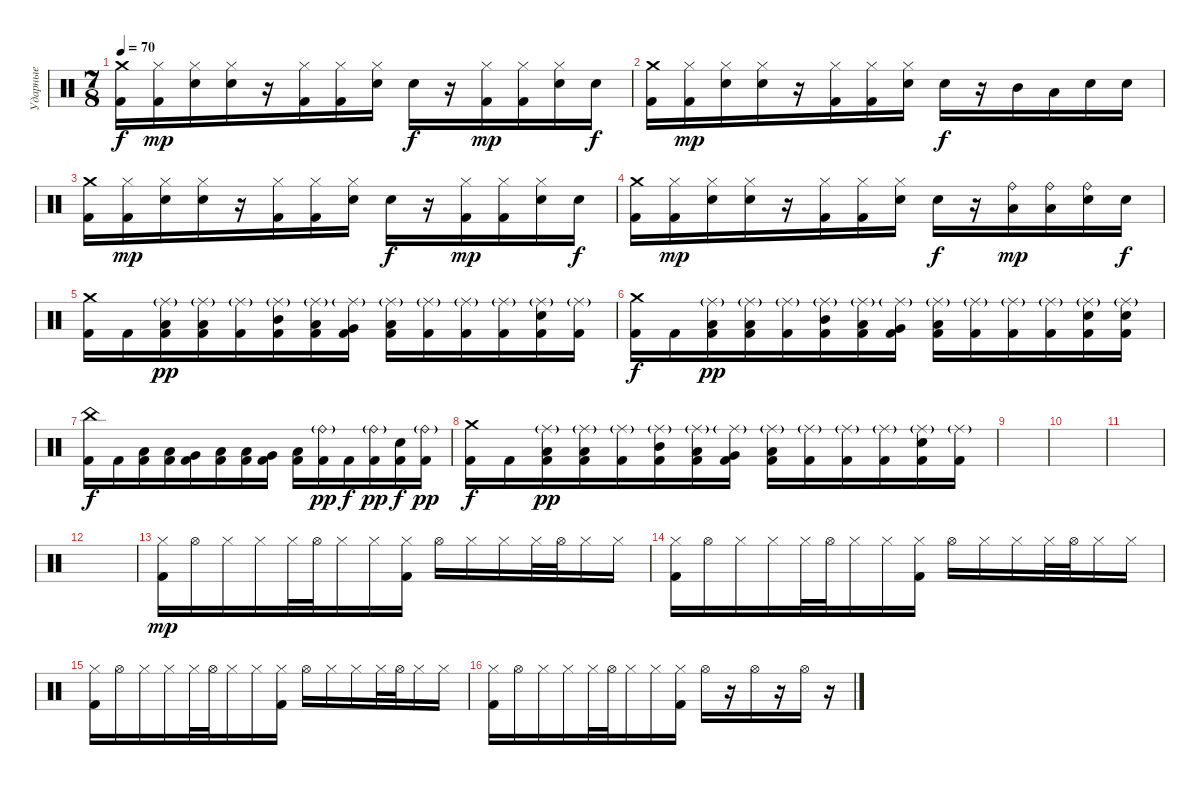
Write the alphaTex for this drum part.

\track ("Ударные" "Ударные") {instrument percussion}
\staff {score}
\articulation defaults
\ts (7 8)
\tempo 70
\clef neutral
\ks c
("Crash medium (hit)" "Kick (hit) 2").16{dy f} ("Hi-Hat (closed)" "Kick (hit) 2").16{dy mp} ("Hi-Hat (closed)" "Snare (hit) 2").16 ("Hi-Hat (closed)" "Snare (hit) 2").16 r.16 ("Hi-Hat (closed)" "Kick (hit) 2").16 ("Hi-Hat (closed)" "Kick (hit) 2").16 ("Hi-Hat (closed)" "Snare (hit) 2").16 "Snare (hit) 2".16{dy f} r.16 ("Hi-Hat (closed)" "Kick (hit) 2").16{dy mp} ("Hi-Hat (closed)" "Kick (hit) 2").16 ("Hi-Hat (closed)" "Snare (hit) 2").16 "Snare (hit) 2".16{dy f} |
("Crash medium (hit)" "Kick (hit) 2").16 ("Hi-Hat (closed)" "Kick (hit) 2").16{dy mp} ("Hi-Hat (closed)" "Snare (hit) 2").16 ("Hi-Hat (closed)" "Snare (hit) 2").16 r.16 ("Hi-Hat (closed)" "Kick (hit) 2").16 ("Hi-Hat (closed)" "Kick (hit) 2").16 ("Hi-Hat (closed)" "Snare (hit) 2").16 "Snare (hit) 2".16{dy f} r.16 "Mid Tom (hit)".16 "Low Tom (hit)".16 "Snare (hit) 2".16 "Snare (hit) 2".16 |
("Crash medium (hit)" "Kick (hit) 2").16 ("Hi-Hat (closed)" "Kick (hit) 2").16{dy mp} ("Hi-Hat (closed)" "Snare (hit) 2").16 ("Hi-Hat (closed)" "Snare (hit) 2").16 r.16 ("Hi-Hat (closed)" "Kick (hit) 2").16 ("Hi-Hat (closed)" "Kick (hit) 2").16 ("Hi-Hat (closed)" "Snare (hit) 2").16 "Snare (hit) 2".16{dy f} r.16 ("Hi-Hat (closed)" "Kick (hit) 2").16{dy mp} ("Hi-Hat (closed)" "Kick (hit) 2").16 ("Hi-Hat (closed)" "Snare (hit) 2").16 "Snare (hit) 2".16{dy f} |
("Crash medium (hit)" "Kick (hit) 2").16 ("Hi-Hat (closed)" "Kick (hit) 2").16{dy mp} ("Hi-Hat (closed)" "Snare (hit) 2").16 ("Hi-Hat (closed)" "Snare (hit) 2").16 r.16 ("Hi-Hat (closed)" "Kick (hit) 2").16 ("Hi-Hat (closed)" "Kick (hit) 2").16 ("Hi-Hat (closed)" "Snare (hit) 2").16 "Snare (hit) 2".16{dy f} r.16 ("Ride (bell)" "Low Floor Tom (hit)").16{dy mp} ("Ride (bell)" "Low Floor Tom (hit)").16 ("Ride (bell)" "Snare (hit) 2").16 "Snare (hit) 2".16{dy f} |
("Crash medium (hit)" "Kick (hit) 2").16 "Kick (hit) 2".16 ("Ride (middle)"{g} "Low Floor Tom (hit)" "Kick (hit) 2").16{dy pp} ("Ride (middle)"{g} "Low Floor Tom (hit)" "Kick (hit) 2").16 ("Ride (middle)"{g} "Kick (hit) 2").16 ("Ride (middle)"{g} "Mid Tom (hit)" "Kick (hit) 2").16 ("Ride (middle)"{g} "Low Tom (hit)" "Kick (hit) 2").16 ("Ride (middle)"{g} "Very Low Tom (hit)" "Kick (hit) 2").16 ("Ride (middle)"{g} "Low Floor Tom (hit)" "Kick (hit) 2").16 ("Ride (middle)"{g} "Kick (hit) 2").16 ("Ride (middle)"{g} "Kick (hit) 2").16 ("Ride (middle)"{g} "Kick (hit) 2").16 ("Ride (middle)"{g} "Snare (hit) 2" "Kick (hit) 2").16 ("Ride (middle)"{g} "Kick (hit) 2").16 |
("Crash medium (hit)" "Kick (hit) 2").16{dy f} "Kick (hit) 2".16 ("Ride (middle)"{g} "Low Floor Tom (hit)" "Kick (hit) 2").16{dy pp} ("Ride (middle)"{g} "Low Floor Tom (hit)" "Kick (hit) 2").16 ("Ride (middle)"{g} "Kick (hit) 2").16 ("Ride (middle)"{g} "Mid Tom (hit)" "Kick (hit) 2").16 ("Ride (middle)"{g} "Low Tom (hit)" "Kick (hit) 2").16 ("Ride (middle)"{g} "Very Low Tom (hit)" "Kick (hit) 2").16 ("Ride (middle)"{g} "Low Floor Tom (hit)" "Kick (hit) 2").16 ("Ride (middle)"{g} "Kick (hit) 2").16 ("Ride (middle)"{g} "Kick (hit) 2").16 ("Ride (middle)"{g} "Kick (hit) 2").16 ("Ride (middle)"{g} "Snare (hit) 2" "Kick (hit) 2").16 ("Ride (middle)"{g} "Snare (hit) 2" "Kick (hit) 2").16 |
("China (hit)" "Kick (hit) 2").16{dy f} "Kick (hit) 2".16 ("Low Floor Tom (hit)" "Kick (hit) 2").16 ("Low Floor Tom (hit)" "Kick (hit) 2").16 ("Very Low Tom (hit)" "Kick (hit) 2").16 ("Low Floor Tom (hit)" "Kick (hit) 2").16 ("Low Tom (hit)" "Kick (hit) 2").16 ("Very Low Tom (hit)" "Kick (hit) 2").16 ("Low Floor Tom (hit)" "Kick (hit) 2").16 ("Ride (bell)"{g} "Kick (hit) 2").16{dy pp} "Kick (hit) 2".16{dy f} ("Ride (bell)"{g} "Kick (hit) 2").16{dy pp} ("Snare (hit) 2" "Kick (hit) 2").16{dy f} ("Ride (bell)"{g} "Kick (hit) 2").16{dy pp} |
("Crash medium (hit)" "Kick (hit) 2").16{dy f} "Kick (hit) 2".16 ("Ride (middle)"{g} "Low Floor Tom (hit)" "Kick (hit) 2").16{dy pp} ("Ride (middle)"{g} "Low Floor Tom (hit)" "Kick (hit) 2").16 ("Ride (middle)"{g} "Kick (hit) 2").16 ("Ride (middle)"{g} "Mid Tom (hit)" "Kick (hit) 2").16 ("Ride (middle)"{g} "Low Tom (hit)" "Kick (hit) 2").16 ("Ride (middle)"{g} "Very Low Tom (hit)" "Kick (hit) 2").16 ("Ride (middle)"{g} "Low Floor Tom (hit)" "Kick (hit) 2").16 ("Ride (middle)"{g} "Kick (hit) 2").16 ("Ride (middle)"{g} "Kick (hit) 2").16 ("Ride (middle)"{g} "Kick (hit) 2").16 ("Ride (middle)"{g} "Snare (hit) 2" "Kick (hit) 2").16 ("Ride (middle)"{g} "Kick (hit) 2").16 |
|
|
|
|
("Hi-Hat (closed)" "Kick (hit) 2").16{dy mp} "Hi-Hat (open)".16 "Hi-Hat (closed)".16 "Hi-Hat (closed)".16 "Hi-Hat (closed)".32 "Hi-Hat (open)".32 "Hi-Hat (closed)".16 "Hi-Hat (closed)".16 ("Hi-Hat (closed)" "Kick (hit) 2").16 "Hi-Hat (open)".16 "Hi-Hat (closed)".16 "Hi-Hat (closed)".16 "Hi-Hat (closed)".32 "Hi-Hat (open)".32 "Hi-Hat (closed)".16 "Hi-Hat (closed)".16 |
("Hi-Hat (closed)" "Kick (hit) 2").16 "Hi-Hat (open)".16 "Hi-Hat (closed)".16 "Hi-Hat (closed)".16 "Hi-Hat (closed)".32 "Hi-Hat (open)".32 "Hi-Hat (closed)".16 "Hi-Hat (closed)".16 ("Hi-Hat (closed)" "Kick (hit) 2").16 "Hi-Hat (open)".16 "Hi-Hat (closed)".16 "Hi-Hat (closed)".16 "Hi-Hat (closed)".32 "Hi-Hat (open)".32 "Hi-Hat (closed)".16 "Hi-Hat (closed)".16 |
("Hi-Hat (closed)" "Kick (hit) 2").16 "Hi-Hat (open)".16 "Hi-Hat (closed)".16 "Hi-Hat (closed)".16 "Hi-Hat (closed)".32 "Hi-Hat (open)".32 "Hi-Hat (closed)".16 "Hi-Hat (closed)".16 ("Hi-Hat (closed)" "Kick (hit) 2").16 "Hi-Hat (open)".16 "Hi-Hat (closed)".16 "Hi-Hat (closed)".16 "Hi-Hat (closed)".32 "Hi-Hat (open)".32 "Hi-Hat (closed)".16 "Hi-Hat (closed)".16 |
("Hi-Hat (closed)" "Kick (hit) 2").16 "Hi-Hat (open)".16 "Hi-Hat (closed)".16 "Hi-Hat (closed)".16 "Hi-Hat (closed)".32 "Hi-Hat (open)".32 "Hi-Hat (closed)".16 "Hi-Hat (closed)".16 ("Hi-Hat (closed)" "Kick (hit) 2").16 "Hi-Hat (open)".16 r.16 "Hi-Hat (open)".16 r.16 "Hi-Hat (open)".16 r.16
